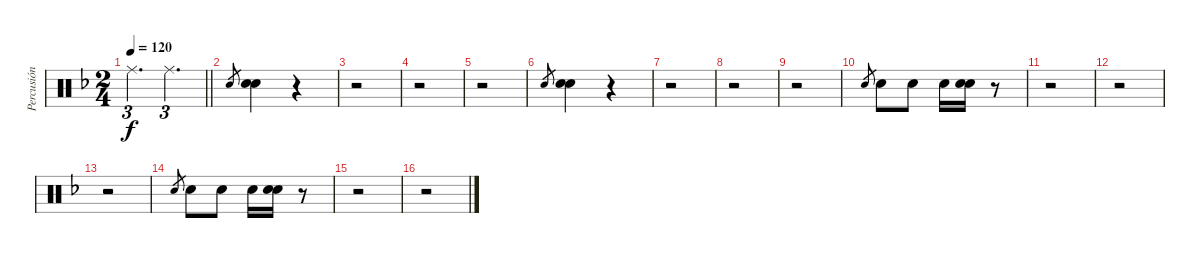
\track ("Percusión" "Percusión") {instrument percussion}
\staff {score}
\articulation defaults
\ts (2 4)
\tempo 120
\clef neutral
\barLineRight lightlight
\ks dminor "Ride (middle)".4{d tu (3 2) dy f} "Ride (middle)".4{d tu (3 2)}
|
"Snare (hit) 2".8{gr} ("Snare (hit) 2" "Electric Snare (hit)").4 r.4 |
r.2 |
r.2 |
r.2 |
"Snare (hit) 2".8{gr} ("Snare (hit) 2" "Electric Snare (hit)").4 r.4 |
r.2 |
r.2 |
r.2 |
"Snare (hit) 2".8{gr} "Snare (hit) 2".8 "Snare (hit) 2".8 "Snare (hit) 2".16 ("Snare (hit) 2" "Electric Snare (hit)").16 r.8 |
r.2 |
r.2 |
r.2 |
"Snare (hit) 2".8{gr} "Snare (hit) 2".8 "Snare (hit) 2".8 "Snare (hit) 2".16 ("Snare (hit) 2" "Electric Snare (hit)").16 r.8 |
r.2 |
r.2
